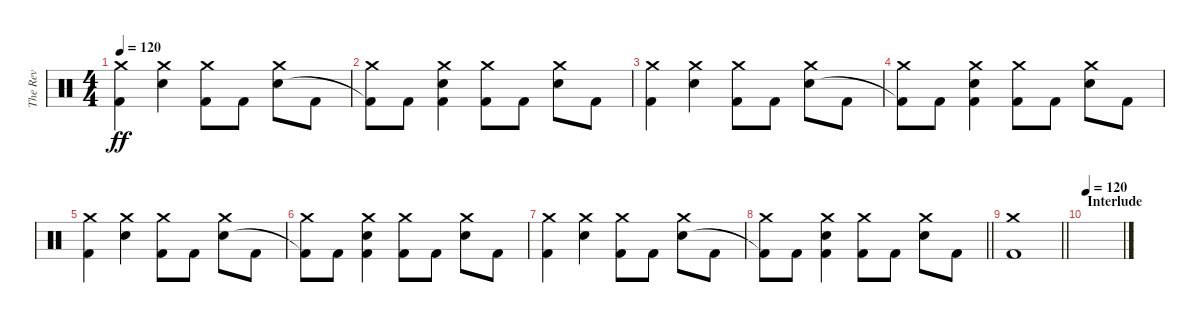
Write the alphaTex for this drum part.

\track ("The Rev" "The Rev") {instrument percussion}
\staff {score}
\articulation defaults
\ts (4 4)
\tempo 120
\clef neutral
\ks c
("Crash medium (hit)" "Kick (hit) 2").4{dy ff} ("Crash medium (hit)" "Electric Snare (hit)").4 ("Crash medium (hit)" "Kick (hit) 2").8 "Kick (hit) 2".8 ("Crash medium (hit)" "Electric Snare (hit)").8 "Kick (hit) 2".8 |
("Crash medium (hit)" "Kick (hit) 2"{t}).8 "Kick (hit) 2".8 ("Crash medium (hit)" "Electric Snare (hit)" "Kick (hit) 2").4 ("Crash medium (hit)" "Kick (hit) 2").8 "Kick (hit) 2".8 ("Crash medium (hit)" "Electric Snare (hit)").8 "Kick (hit) 2".8 |
("Crash medium (hit)" "Kick (hit) 2").4 ("Crash medium (hit)" "Electric Snare (hit)").4 ("Crash medium (hit)" "Kick (hit) 2").8 "Kick (hit) 2".8 ("Crash medium (hit)" "Electric Snare (hit)").8 "Kick (hit) 2".8 |
("Crash medium (hit)" "Kick (hit) 2"{t}).8 "Kick (hit) 2".8 ("Crash medium (hit)" "Electric Snare (hit)" "Kick (hit) 2").4 ("Crash medium (hit)" "Kick (hit) 2").8 "Kick (hit) 2".8 ("Crash medium (hit)" "Electric Snare (hit)").8 "Kick (hit) 2".8 |
("Crash medium (hit)" "Kick (hit) 2").4 ("Crash medium (hit)" "Electric Snare (hit)").4 ("Crash medium (hit)" "Kick (hit) 2").8 "Kick (hit) 2".8 ("Crash medium (hit)" "Electric Snare (hit)").8 "Kick (hit) 2".8 |
("Crash medium (hit)" "Kick (hit) 2"{t}).8 "Kick (hit) 2".8 ("Crash medium (hit)" "Electric Snare (hit)" "Kick (hit) 2").4 ("Crash medium (hit)" "Kick (hit) 2").8 "Kick (hit) 2".8 ("Crash medium (hit)" "Electric Snare (hit)").8 "Kick (hit) 2".8 |
("Crash medium (hit)" "Kick (hit) 2").4 ("Crash medium (hit)" "Electric Snare (hit)").4 ("Crash medium (hit)" "Kick (hit) 2").8 "Kick (hit) 2".8 ("Crash medium (hit)" "Electric Snare (hit)").8 "Kick (hit) 2".8 |
\barLineRight lightlight
("Crash medium (hit)" "Kick (hit) 2"{t}).8 "Kick (hit) 2".8 ("Crash medium (hit)" "Electric Snare (hit)" "Kick (hit) 2").4 ("Crash medium (hit)" "Kick (hit) 2").8 "Kick (hit) 2".8 ("Crash medium (hit)" "Electric Snare (hit)").8 "Kick (hit) 2".8 |
\barLineRight lightlight
("Crash medium (hit)" "Kick (hit) 2").1 |
\section ("" "Interlude")
\tempo 120
